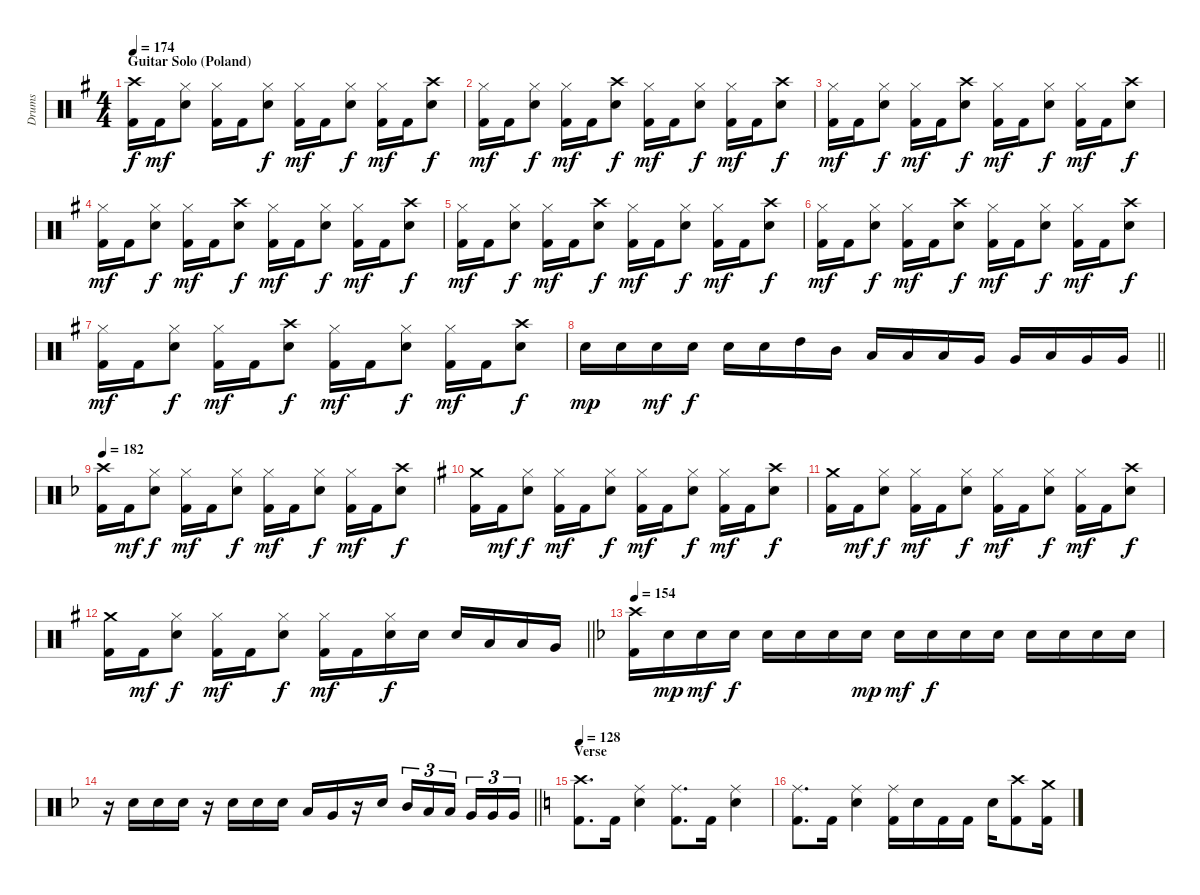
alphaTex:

\track ("Drums" "Drums") {instrument percussion}
\staff {score}
\articulation defaults
\ts (4 4)
\section ("" "Guitar Solo (Poland)")
\tempo 174
\clef neutral
\ks g
("Crash high (hit)" "Kick (hit) 2").16{dy f} "Kick (hit) 2".16{dy mf} ("Hi-Hat (closed)" "Snare (hit) 2").8 ("Hi-Hat (closed)" "Kick (hit) 2").16 "Kick (hit) 2".16 ("Hi-Hat (closed)" "Snare (hit) 2").8{dy f} ("Hi-Hat (closed)" "Kick (hit) 2").16{dy mf} "Kick (hit) 2".16 ("Hi-Hat (closed)" "Snare (hit) 2").8{dy f} ("Hi-Hat (closed)" "Kick (hit) 2").16{dy mf} "Kick (hit) 2".16 ("Crash high (hit)" "Snare (hit) 2").8{dy f} |
("Hi-Hat (closed)" "Kick (hit) 2").16{dy mf} "Kick (hit) 2".16 ("Hi-Hat (closed)" "Snare (hit) 2").8{dy f} ("Hi-Hat (closed)" "Kick (hit) 2").16{dy mf} "Kick (hit) 2".16 ("Crash high (hit)" "Snare (hit) 2").8{dy f} ("Hi-Hat (closed)" "Kick (hit) 2").16{dy mf} "Kick (hit) 2".16 ("Hi-Hat (closed)" "Snare (hit) 2").8{dy f} ("Hi-Hat (closed)" "Kick (hit) 2").16{dy mf} "Kick (hit) 2".16 ("Crash high (hit)" "Snare (hit) 2").8{dy f} |
("Hi-Hat (closed)" "Kick (hit) 2").16{dy mf} "Kick (hit) 2".16 ("Hi-Hat (closed)" "Snare (hit) 2").8{dy f} ("Hi-Hat (closed)" "Kick (hit) 2").16{dy mf} "Kick (hit) 2".16 ("Crash high (hit)" "Snare (hit) 2").8{dy f} ("Hi-Hat (closed)" "Kick (hit) 2").16{dy mf} "Kick (hit) 2".16 ("Hi-Hat (closed)" "Snare (hit) 2").8{dy f} ("Hi-Hat (closed)" "Kick (hit) 2").16{dy mf} "Kick (hit) 2".16 ("Crash high (hit)" "Snare (hit) 2").8{dy f} |
("Hi-Hat (closed)" "Kick (hit) 2").16{dy mf} "Kick (hit) 2".16 ("Hi-Hat (closed)" "Snare (hit) 2").8{dy f} ("Hi-Hat (closed)" "Kick (hit) 2").16{dy mf} "Kick (hit) 2".16 ("Crash high (hit)" "Snare (hit) 2").8{dy f} ("Hi-Hat (closed)" "Kick (hit) 2").16{dy mf} "Kick (hit) 2".16 ("Hi-Hat (closed)" "Snare (hit) 2").8{dy f} ("Hi-Hat (closed)" "Kick (hit) 2").16{dy mf} "Kick (hit) 2".16 ("Crash high (hit)" "Snare (hit) 2").8{dy f} |
("Hi-Hat (closed)" "Kick (hit) 2").16{dy mf} "Kick (hit) 2".16 ("Hi-Hat (closed)" "Snare (hit) 2").8{dy f} ("Hi-Hat (closed)" "Kick (hit) 2").16{dy mf} "Kick (hit) 2".16 ("Crash high (hit)" "Snare (hit) 2").8{dy f} ("Hi-Hat (closed)" "Kick (hit) 2").16{dy mf} "Kick (hit) 2".16 ("Hi-Hat (closed)" "Snare (hit) 2").8{dy f} ("Hi-Hat (closed)" "Kick (hit) 2").16{dy mf} "Kick (hit) 2".16 ("Crash high (hit)" "Snare (hit) 2").8{dy f} |
("Hi-Hat (closed)" "Kick (hit) 2").16{dy mf} "Kick (hit) 2".16 ("Hi-Hat (closed)" "Snare (hit) 2").8{dy f} ("Hi-Hat (closed)" "Kick (hit) 2").16{dy mf} "Kick (hit) 2".16 ("Crash high (hit)" "Snare (hit) 2").8{dy f} ("Hi-Hat (closed)" "Kick (hit) 2").16{dy mf} "Kick (hit) 2".16 ("Hi-Hat (closed)" "Snare (hit) 2").8{dy f} ("Hi-Hat (closed)" "Kick (hit) 2").16{dy mf} "Kick (hit) 2".16 ("Crash high (hit)" "Snare (hit) 2").8{dy f} |
("Hi-Hat (closed)" "Kick (hit) 2").16{dy mf} "Kick (hit) 2".16 ("Hi-Hat (closed)" "Snare (hit) 2").8{dy f} ("Hi-Hat (closed)" "Kick (hit) 2").16{dy mf} "Kick (hit) 2".16 ("Crash high (hit)" "Snare (hit) 2").8{dy f} ("Hi-Hat (closed)" "Kick (hit) 2").16{dy mf} "Kick (hit) 2".16 ("Hi-Hat (closed)" "Snare (hit) 2").8{dy f} ("Hi-Hat (closed)" "Kick (hit) 2").16{dy mf} "Kick (hit) 2".16 ("Crash high (hit)" "Snare (hit) 2").8{dy f} |
\barLineRight lightlight "Snare (hit) 2".16{dy mp} "Snare (hit) 2".16 "Snare (hit) 2".16{dy mf} "Snare (hit) 2".16{dy f} "Snare (hit) 2".16 "Snare (hit) 2".16 "High Tom (hit)".16 "Mid Tom (hit)".16 "Low Tom (hit)".16 "Low Tom (hit)".16 "Low Tom (hit)".16 "Very Low Tom (hit)".16 "Very Low Tom (hit)".16 "Low Tom (hit)".16 "Very Low Tom (hit)".16 "Very Low Tom (hit)".16
|
\tempo 182
\ks f
("Crash high (hit)" "Kick (hit) 2").16 "Kick (hit) 2".16{dy mf} ("Hi-Hat (closed)" "Snare (hit) 2").8{dy f} ("Hi-Hat (closed)" "Kick (hit) 2").16{dy mf} "Kick (hit) 2".16 ("Hi-Hat (closed)" "Snare (hit) 2").8{dy f} ("Hi-Hat (closed)" "Kick (hit) 2").16{dy mf} "Kick (hit) 2".16 ("Hi-Hat (closed)" "Snare (hit) 2").8{dy f} ("Hi-Hat (closed)" "Kick (hit) 2").16{dy mf} "Kick (hit) 2".16 ("Crash high (hit)" "Snare (hit) 2").8{dy f} |
\ks eminor
("Crash medium (hit)" "Kick (hit) 2").16 "Kick (hit) 2".16{dy mf} ("Hi-Hat (closed)" "Snare (hit) 2").8{dy f} ("Hi-Hat (closed)" "Kick (hit) 2").16{dy mf} "Kick (hit) 2".16 ("Hi-Hat (closed)" "Snare (hit) 2").8{dy f} ("Hi-Hat (closed)" "Kick (hit) 2").16{dy mf} "Kick (hit) 2".16 ("Hi-Hat (closed)" "Snare (hit) 2").8{dy f} ("Hi-Hat (closed)" "Kick (hit) 2").16{dy mf} "Kick (hit) 2".16 ("Crash high (hit)" "Snare (hit) 2").8{dy f} |
("Crash medium (hit)" "Kick (hit) 2").16 "Kick (hit) 2".16{dy mf} ("Hi-Hat (closed)" "Snare (hit) 2").8{dy f} ("Hi-Hat (closed)" "Kick (hit) 2").16{dy mf} "Kick (hit) 2".16 ("Hi-Hat (closed)" "Snare (hit) 2").8{dy f} ("Hi-Hat (closed)" "Kick (hit) 2").16{dy mf} "Kick (hit) 2".16 ("Hi-Hat (closed)" "Snare (hit) 2").8{dy f} ("Hi-Hat (closed)" "Kick (hit) 2").16{dy mf} "Kick (hit) 2".16 ("Crash high (hit)" "Snare (hit) 2").8{dy f} |
\barLineRight lightlight
("Crash medium (hit)" "Kick (hit) 2").16 "Kick (hit) 2".16{dy mf} ("Hi-Hat (closed)" "Snare (hit) 2").8{dy f} ("Hi-Hat (closed)" "Kick (hit) 2").16{dy mf} "Kick (hit) 2".16 ("Hi-Hat (closed)" "Snare (hit) 2").8{dy f} ("Hi-Hat (closed)" "Kick (hit) 2").16{dy mf} "Kick (hit) 2".16 ("Hi-Hat (closed)" "Snare (hit) 2").16{dy f} "Snare (hit) 2".16 "Snare (hit) 2".16 "Low Tom (hit)".16 "Low Tom (hit)".16 "Very Low Tom (hit)".16 |
\tempo 154
\ks dminor
("Crash high (hit)" "Kick (hit) 2").16 "Snare (hit) 2".16{dy mp} "Snare (hit) 2".16{dy mf} "Snare (hit) 2".16{dy f} "Snare (hit) 2".16 "Snare (hit) 2".16 "Snare (hit) 2".16 "Snare (hit) 2".16{dy mp} "Snare (hit) 2".16{dy mf} "Snare (hit) 2".16{dy f} "Snare (hit) 2".16 "Snare (hit) 2".16 "Snare (hit) 2".16 "Snare (hit) 2".16 "Snare (hit) 2".16 "Snare (hit) 2".16 |
\barLineRight lightlight
r.16 "Snare (hit) 2".16 "Snare (hit) 2".16 "Snare (hit) 2".16 r.16 "Snare (hit) 2".16 "Snare (hit) 2".16 "Snare (hit) 2".16 "Low Tom (hit)".16 "Very Low Tom (hit)".16 r.16 "Snare (hit) 2".16 "Mid Tom (hit)".16{tu (3 2)} "Low Tom (hit)".16{tu (3 2)} "Low Tom (hit)".16{tu (3 2) beam splitsecondary} "Very Low Tom (hit)".16{tu (3 2)} "Very Low Tom (hit)".16{tu (3 2)} "Very Low Tom (hit)".16{tu (3 2)} |
\section ("" "Verse")
\tempo 128
\ks aminor
("Crash high (hit)" "Kick (hit) 2").8{d} "Kick (hit) 2".16 ("Ride (middle)" "Snare (hit) 2").4 ("Ride (middle)" "Kick (hit) 2").8{d} "Kick (hit) 2".16 ("Ride (middle)" "Snare (hit) 2").4 |
("Ride (middle)" "Kick (hit) 2").8{d} "Kick (hit) 2".16 ("Ride (middle)" "Snare (hit) 2").4 ("Ride (middle)" "Kick (hit) 2").16 "Snare (hit) 2".16 "Kick (hit) 2".16 "Kick (hit) 2".16 "Snare (hit) 2".16 ("Crash high (hit)" "Kick (hit) 2").8 ("Crash medium (hit)" "Kick (hit) 2").16
